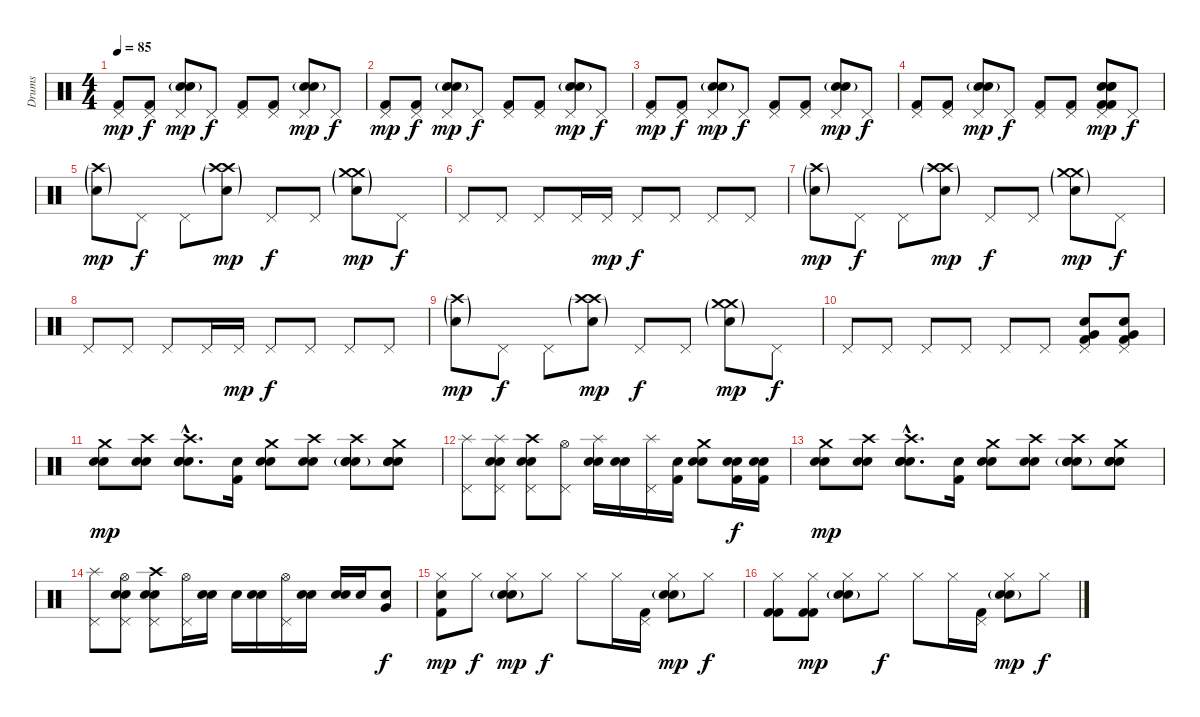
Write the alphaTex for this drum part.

\track ("Drums" "Drums") {instrument percussion}
\staff {score}
\articulation defaults
\ts (4 4)
\tempo 85
\clef neutral
\ks c
("Pedal Hi-Hat (hit)" "Kick (hit) 2").8{dy mp} ("Pedal Hi-Hat (hit)" "Kick (hit) 2").8{dy f} ("Pedal Hi-Hat (hit)" "Electric Snare (hit)" "Snare (hit) 2"{g}).8{dy mp} "Pedal Hi-Hat (hit)".8{dy f} ("Pedal Hi-Hat (hit)" "Kick (hit) 2").8 ("Pedal Hi-Hat (hit)" "Kick (hit) 2").8 ("Pedal Hi-Hat (hit)" "Electric Snare (hit)" "Snare (hit) 2"{g}).8{dy mp} "Pedal Hi-Hat (hit)".8{dy f} |
("Pedal Hi-Hat (hit)" "Kick (hit) 2").8{dy mp} ("Pedal Hi-Hat (hit)" "Kick (hit) 2").8{dy f} ("Pedal Hi-Hat (hit)" "Electric Snare (hit)" "Snare (hit) 2"{g}).8{dy mp} "Pedal Hi-Hat (hit)".8{dy f} ("Pedal Hi-Hat (hit)" "Kick (hit) 2").8 ("Pedal Hi-Hat (hit)" "Kick (hit) 2").8 ("Pedal Hi-Hat (hit)" "Electric Snare (hit)" "Snare (hit) 2"{g}).8{dy mp} "Pedal Hi-Hat (hit)".8{dy f} |
("Pedal Hi-Hat (hit)" "Kick (hit) 2").8{dy mp} ("Pedal Hi-Hat (hit)" "Kick (hit) 2").8{dy f} ("Pedal Hi-Hat (hit)" "Electric Snare (hit)" "Snare (hit) 2"{g}).8{dy mp} "Pedal Hi-Hat (hit)".8{dy f} ("Pedal Hi-Hat (hit)" "Kick (hit) 2").8 ("Pedal Hi-Hat (hit)" "Kick (hit) 2").8 ("Pedal Hi-Hat (hit)" "Electric Snare (hit)" "Snare (hit) 2"{g}).8{dy mp} "Pedal Hi-Hat (hit)".8{dy f} |
("Pedal Hi-Hat (hit)" "Kick (hit) 2").8 ("Pedal Hi-Hat (hit)" "Kick (hit) 2").8 ("Pedal Hi-Hat (hit)" "Electric Snare (hit)" "Snare (hit) 2"{g}).8{dy mp} "Pedal Hi-Hat (hit)".8{dy f} ("Pedal Hi-Hat (hit)" "Kick (hit) 2").8 ("Pedal Hi-Hat (hit)" "Kick (hit) 2").8 ("Pedal Hi-Hat (hit)" "Electric Snare (hit)" "Electric Snare (hit)" "Electric Snare (hit)" "Kick (hit) 2" "Kick (hit) 2").8{dy mp} "Pedal Hi-Hat (hit)".8{dy f} |
("Crash high (hit)"{g} "Electric Snare (hit)"{g}).8{dy mp} "Pedal Hi-Hat (hit)".8{dy f} "Pedal Hi-Hat (hit)".8 ("Crash high (hit)"{g} "Electric Snare (hit)"{g} "Crash high (hit)"{g}).8{dy mp} "Pedal Hi-Hat (hit)".8{dy f} "Pedal Hi-Hat (hit)".8 ("Crash medium (hit)"{g} "Electric Snare (hit)"{g} "Crash medium (hit)"{g}).8{dy mp} "Pedal Hi-Hat (hit)".8{dy f} |
"Pedal Hi-Hat (hit)".8 "Pedal Hi-Hat (hit)".8 "Pedal Hi-Hat (hit)".8 "Pedal Hi-Hat (hit)".16 "Pedal Hi-Hat (hit)".16{dy mp} "Pedal Hi-Hat (hit)".8{dy f} "Pedal Hi-Hat (hit)".8 "Pedal Hi-Hat (hit)".8 "Pedal Hi-Hat (hit)".8 |
("Crash high (hit)"{g} "Electric Snare (hit)"{g}).8{dy mp} "Pedal Hi-Hat (hit)".8{dy f} "Pedal Hi-Hat (hit)".8 ("Crash high (hit)"{g} "Electric Snare (hit)"{g} "Crash high (hit)"{g}).8{dy mp} "Pedal Hi-Hat (hit)".8{dy f} "Pedal Hi-Hat (hit)".8 ("Crash medium (hit)"{g} "Electric Snare (hit)"{g} "Crash medium (hit)"{g}).8{dy mp} "Pedal Hi-Hat (hit)".8{dy f} |
"Pedal Hi-Hat (hit)".8 "Pedal Hi-Hat (hit)".8 "Pedal Hi-Hat (hit)".8 "Pedal Hi-Hat (hit)".16 "Pedal Hi-Hat (hit)".16{dy mp} "Pedal Hi-Hat (hit)".8{dy f} "Pedal Hi-Hat (hit)".8 "Pedal Hi-Hat (hit)".8 "Pedal Hi-Hat (hit)".8 |
("Crash high (hit)"{g} "Electric Snare (hit)"{g}).8{dy mp} "Pedal Hi-Hat (hit)".8{dy f} "Pedal Hi-Hat (hit)".8 ("Crash high (hit)"{g} "Electric Snare (hit)"{g} "Crash high (hit)"{g}).8{dy mp} "Pedal Hi-Hat (hit)".8{dy f} "Pedal Hi-Hat (hit)".8 ("Crash medium (hit)"{g} "Electric Snare (hit)"{g} "Crash medium (hit)"{g}).8{dy mp} "Pedal Hi-Hat (hit)".8{dy f} |
"Pedal Hi-Hat (hit)".8 "Pedal Hi-Hat (hit)".8 "Pedal Hi-Hat (hit)".8 "Pedal Hi-Hat (hit)".8 "Pedal Hi-Hat (hit)".8 "Pedal Hi-Hat (hit)".8 ("Pedal Hi-Hat (hit)" "Electric Snare (hit)" "Very Low Tom (hit)" "Kick (hit) 2").8 ("Pedal Hi-Hat (hit)" "Electric Snare (hit)" "Very Low Tom (hit)" "Kick (hit) 2").8 |
("Crash medium (hit)" "Electric Snare (hit)" "Snare (hit) 2").8{dy mp} ("Crash high (hit)" "Electric Snare (hit)" "Snare (hit) 2").8 ("Electric Snare (hit)"{hac} "Electric Snare (hit)"{hac} "Snare (hit) 2"{hac} "Crash high (hit)").8{d} ("Electric Snare (hit)" "Kick (hit) 2").16 ("Crash medium (hit)" "Electric Snare (hit)" "Snare (hit) 2").8 ("Crash high (hit)" "Electric Snare (hit)" "Snare (hit) 2").8 ("Crash high (hit)" "Electric Snare (hit)" "Electric Snare (hit)" "Snare (hit) 2"{g}).8 ("Electric Snare (hit)" "Electric Snare (hit)" "Snare (hit) 2" "Crash medium (hit)").8 |
("Pedal Hi-Hat (hit)" "Splash (hit)").8 ("Pedal Hi-Hat (hit)" "Electric Snare (hit)" "Snare (hit) 2" "Splash (hit)").8 ("Pedal Hi-Hat (hit)" "Electric Snare (hit)" "Electric Snare (hit)" "Crash high (hit)").8 ("Pedal Hi-Hat (hit)" "Hi-Hat (open)").8 ("Electric Snare (hit)" "Electric Snare (hit)" "Splash (hit)").16 ("Electric Snare (hit)" "Snare (hit) 2").16 ("Pedal Hi-Hat (hit)" "Splash (hit)").16 ("Electric Snare (hit)" "Kick (hit) 2").16 ("Crash medium (hit)" "Electric Snare (hit)" "Snare (hit) 2").8 ("Electric Snare (hit)" "Electric Snare (hit)" "Kick (hit) 2").16{dy f} ("Electric Snare (hit)" "Electric Snare (hit)" "Kick (hit) 2").16 |
("Crash medium (hit)" "Electric Snare (hit)" "Snare (hit) 2").8{dy mp} ("Crash high (hit)" "Electric Snare (hit)" "Snare (hit) 2").8 ("Electric Snare (hit)"{hac} "Electric Snare (hit)"{hac} "Snare (hit) 2"{hac} "Crash high (hit)").8{d} ("Electric Snare (hit)" "Kick (hit) 2").16 ("Crash medium (hit)" "Electric Snare (hit)" "Snare (hit) 2").8 ("Crash high (hit)" "Electric Snare (hit)" "Snare (hit) 2").8 ("Crash high (hit)" "Electric Snare (hit)" "Electric Snare (hit)" "Snare (hit) 2"{g}).8 ("Electric Snare (hit)" "Electric Snare (hit)" "Snare (hit) 2" "Crash medium (hit)").8 |
("Pedal Hi-Hat (hit)" "Splash (hit)").8 ("Pedal Hi-Hat (hit)" "Electric Snare (hit)" "Snare (hit) 2" "Hi-Hat (open)").8 ("Pedal Hi-Hat (hit)" "Electric Snare (hit)" "Electric Snare (hit)" "Crash high (hit)").8 ("Pedal Hi-Hat (hit)" "Hi-Hat (open)").16 ("Electric Snare (hit)" "Snare (hit) 2").16 "Electric Snare (hit)".16 ("Electric Snare (hit)" "Electric Snare (hit)").16 ("Pedal Hi-Hat (hit)" "Hi-Hat (open)").16 ("Electric Snare (hit)" "Snare (hit) 2").16 ("Electric Snare (hit)" "Snare (hit) 2").16 "Electric Snare (hit)".16 ("Electric Snare (hit)" "Very Low Tom (hit)").8{dy f} |
("Hi-Hat (closed)" "Kick (hit) 2" "Electric Snare (hit)").8{dy mp} "Hi-Hat (closed)".8{dy f} ("Hi-Hat (closed)" "Electric Snare (hit)" "Snare (hit) 2"{g}).8{dy mp} "Hi-Hat (closed)".8{dy f} "Hi-Hat (closed)".8 "Hi-Hat (closed)".16 ("Pedal Hi-Hat (hit)" "Kick (hit) 2").16 ("Hi-Hat (closed)" "Electric Snare (hit)" "Snare (hit) 2"{g}).8{dy mp} "Hi-Hat (closed)".8{dy f} |
("Hi-Hat (closed)" "Kick (hit) 2" "Kick (hit) 2").8 ("Hi-Hat (closed)" "Kick (hit) 2" "Kick (hit) 2").8{dy mp} ("Hi-Hat (closed)" "Electric Snare (hit)" "Snare (hit) 2"{g}).8 "Hi-Hat (closed)".8{dy f} "Hi-Hat (closed)".8 "Hi-Hat (closed)".16 ("Pedal Hi-Hat (hit)" "Kick (hit) 2").16 ("Hi-Hat (closed)" "Electric Snare (hit)" "Snare (hit) 2"{g}).8{dy mp} "Hi-Hat (closed)".8{dy f}
